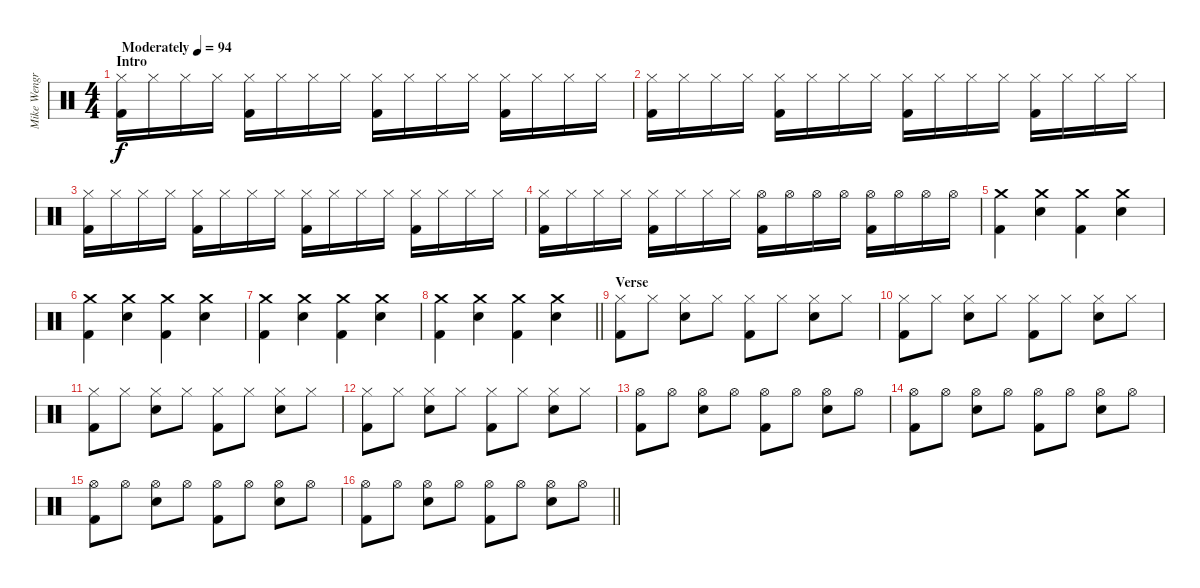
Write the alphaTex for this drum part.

\track ("Mike Wengren" "Mike Wengr") {instrument percussion}
\staff {score}
\articulation defaults
\ts (4 4)
\section ("" "Intro")
\tempo (94 "Moderately")
\clef neutral
\ks c
("Kick (hit) 2" "Hi-Hat (closed)").16{dy f} "Hi-Hat (closed)".16 "Hi-Hat (closed)".16 "Hi-Hat (closed)".16 ("Kick (hit) 2" "Hi-Hat (closed)").16 "Hi-Hat (closed)".16 "Hi-Hat (closed)".16 "Hi-Hat (closed)".16 ("Kick (hit) 2" "Hi-Hat (closed)").16 "Hi-Hat (closed)".16 "Hi-Hat (closed)".16 "Hi-Hat (closed)".16 ("Kick (hit) 2" "Hi-Hat (closed)").16 "Hi-Hat (closed)".16 "Hi-Hat (closed)".16 "Hi-Hat (closed)".16 |
("Kick (hit) 2" "Hi-Hat (closed)").16 "Hi-Hat (closed)".16 "Hi-Hat (closed)".16 "Hi-Hat (closed)".16 ("Kick (hit) 2" "Hi-Hat (closed)").16 "Hi-Hat (closed)".16 "Hi-Hat (closed)".16 "Hi-Hat (closed)".16 ("Kick (hit) 2" "Hi-Hat (closed)").16 "Hi-Hat (closed)".16 "Hi-Hat (closed)".16 "Hi-Hat (closed)".16 ("Kick (hit) 2" "Hi-Hat (closed)").16 "Hi-Hat (closed)".16 "Hi-Hat (closed)".16 "Hi-Hat (closed)".16 |
("Kick (hit) 2" "Hi-Hat (closed)").16 "Hi-Hat (closed)".16 "Hi-Hat (closed)".16 "Hi-Hat (closed)".16 ("Kick (hit) 2" "Hi-Hat (closed)").16 "Hi-Hat (closed)".16 "Hi-Hat (closed)".16 "Hi-Hat (closed)".16 ("Kick (hit) 2" "Hi-Hat (closed)").16 "Hi-Hat (closed)".16 "Hi-Hat (closed)".16 "Hi-Hat (closed)".16 ("Kick (hit) 2" "Hi-Hat (closed)").16 "Hi-Hat (closed)".16 "Hi-Hat (closed)".16 "Hi-Hat (closed)".16 |
("Kick (hit) 2" "Hi-Hat (closed)").16 "Hi-Hat (closed)".16 "Hi-Hat (closed)".16 "Hi-Hat (closed)".16 ("Kick (hit) 2" "Hi-Hat (closed)").16 "Hi-Hat (closed)".16 "Hi-Hat (closed)".16 "Hi-Hat (closed)".16 ("Kick (hit) 2" "Hi-Hat (open)").16 "Hi-Hat (open)".16 "Hi-Hat (open)".16 "Hi-Hat (open)".16 ("Kick (hit) 2" "Hi-Hat (open)").16 "Hi-Hat (open)".16 "Hi-Hat (open)".16 "Hi-Hat (open)".16 |
("Kick (hit) 2" "Crash medium (hit)").4 ("Electric Snare (hit)" "Crash medium (hit)").4 ("Kick (hit) 2" "Crash medium (hit)").4 ("Electric Snare (hit)" "Crash medium (hit)").4 |
("Kick (hit) 2" "Crash medium (hit)").4 ("Electric Snare (hit)" "Crash medium (hit)").4 ("Kick (hit) 2" "Crash medium (hit)").4 ("Electric Snare (hit)" "Crash medium (hit)").4 |
("Kick (hit) 2" "Crash medium (hit)").4 ("Electric Snare (hit)" "Crash medium (hit)").4 ("Kick (hit) 2" "Crash medium (hit)").4 ("Electric Snare (hit)" "Crash medium (hit)").4 |
\barLineRight lightlight
("Kick (hit) 2" "Crash medium (hit)").4 ("Electric Snare (hit)" "Crash medium (hit)").4 ("Kick (hit) 2" "Crash medium (hit)").4 ("Electric Snare (hit)" "Crash medium (hit)").4 |
\section ("" "Verse")
("Kick (hit) 2" "Hi-Hat (closed)").8 "Hi-Hat (closed)".8 ("Electric Snare (hit)" "Hi-Hat (closed)").8 "Hi-Hat (closed)".8 ("Kick (hit) 2" "Hi-Hat (closed)").8 "Hi-Hat (closed)".8 ("Electric Snare (hit)" "Hi-Hat (closed)").8 "Hi-Hat (closed)".8 |
("Kick (hit) 2" "Hi-Hat (closed)").8 "Hi-Hat (closed)".8 ("Electric Snare (hit)" "Hi-Hat (closed)").8 "Hi-Hat (closed)".8 ("Kick (hit) 2" "Hi-Hat (closed)").8 "Hi-Hat (closed)".8 ("Electric Snare (hit)" "Hi-Hat (closed)").8 "Hi-Hat (closed)".8 |
("Kick (hit) 2" "Hi-Hat (closed)").8 "Hi-Hat (closed)".8 ("Electric Snare (hit)" "Hi-Hat (closed)").8 "Hi-Hat (closed)".8 ("Kick (hit) 2" "Hi-Hat (closed)").8 "Hi-Hat (closed)".8 ("Electric Snare (hit)" "Hi-Hat (closed)").8 "Hi-Hat (closed)".8 |
("Kick (hit) 2" "Hi-Hat (closed)").8 "Hi-Hat (closed)".8 ("Electric Snare (hit)" "Hi-Hat (closed)").8 "Hi-Hat (closed)".8 ("Kick (hit) 2" "Hi-Hat (closed)").8 "Hi-Hat (closed)".8 ("Electric Snare (hit)" "Hi-Hat (closed)").8 "Hi-Hat (closed)".8 |
("Kick (hit) 2" "Hi-Hat (open)").8 "Hi-Hat (open)".8 ("Electric Snare (hit)" "Hi-Hat (open)").8 "Hi-Hat (open)".8 ("Kick (hit) 2" "Hi-Hat (open)").8 "Hi-Hat (open)".8 ("Electric Snare (hit)" "Hi-Hat (open)").8 "Hi-Hat (open)".8 |
("Kick (hit) 2" "Hi-Hat (open)").8 "Hi-Hat (open)".8 ("Electric Snare (hit)" "Hi-Hat (open)").8 "Hi-Hat (open)".8 ("Kick (hit) 2" "Hi-Hat (open)").8 "Hi-Hat (open)".8 ("Electric Snare (hit)" "Hi-Hat (open)").8 "Hi-Hat (open)".8 |
("Kick (hit) 2" "Hi-Hat (open)").8 "Hi-Hat (open)".8 ("Electric Snare (hit)" "Hi-Hat (open)").8 "Hi-Hat (open)".8 ("Kick (hit) 2" "Hi-Hat (open)").8 "Hi-Hat (open)".8 ("Electric Snare (hit)" "Hi-Hat (open)").8 "Hi-Hat (open)".8 |
\barLineRight lightlight
("Kick (hit) 2" "Hi-Hat (open)").8 "Hi-Hat (open)".8 ("Electric Snare (hit)" "Hi-Hat (open)").8 "Hi-Hat (open)".8 ("Kick (hit) 2" "Hi-Hat (open)").8 "Hi-Hat (open)".8 ("Electric Snare (hit)" "Hi-Hat (open)").8 "Hi-Hat (open)".8
